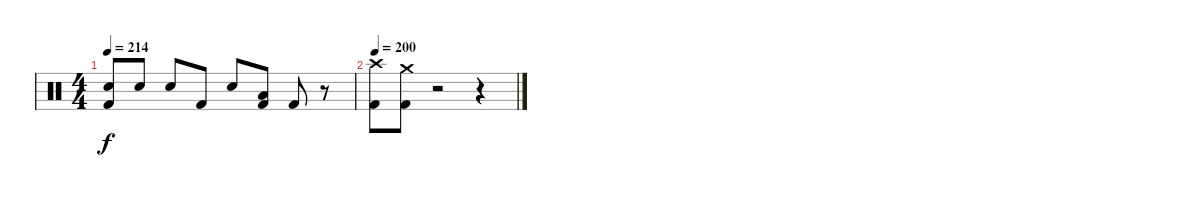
\track "" {instrument percussion}
\staff {score}
\articulation defaults
\ts (4 4)
\tempo 214
\clef neutral
\ks c
("Kick (hit) 2" "Electric Snare (hit)").8{dy f} "Electric Snare (hit)".8 "Electric Snare (hit)".8 "Kick (hit) 2".8 "Electric Snare (hit)".8 ("Low Tom (hit)" "Kick (hit) 2").8 "Kick (hit) 2".8 r.8 |
\tempo 200
("Crash high (hit)" "Kick (hit) 2").8 ("Crash medium (hit)" "Kick (hit) 2").8 r.2 r.4
